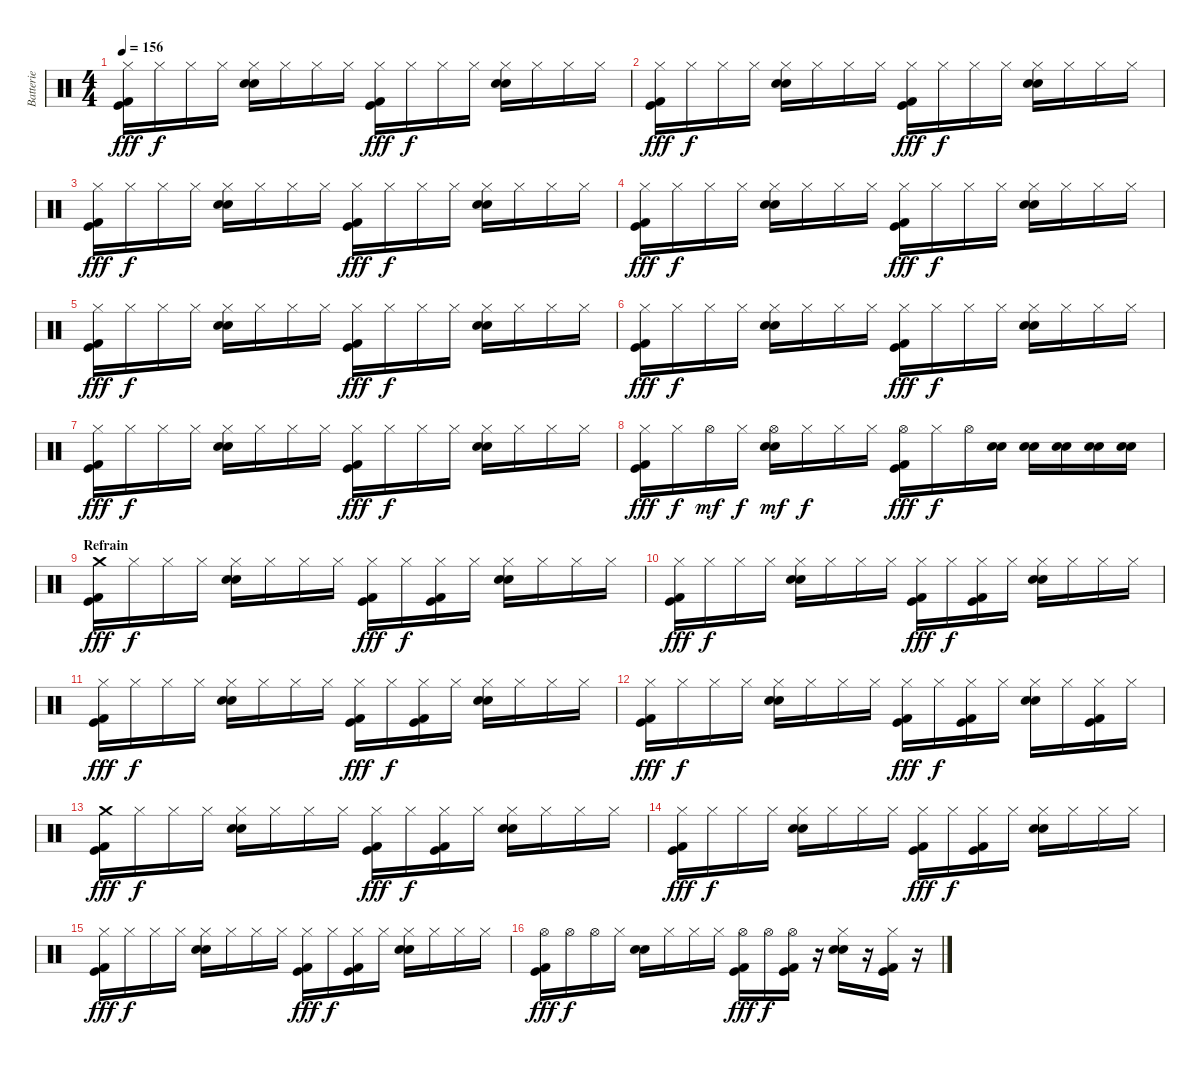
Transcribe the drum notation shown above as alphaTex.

\track ("Batterie" "Batterie") {instrument percussion}
\staff {score}
\articulation defaults
\ts (4 4)
\tempo 156
\clef neutral
\ks c
("Hi-Hat (closed)" "Kick (hit)" "Kick (hit) 2").16{dy fff} "Hi-Hat (closed)".16{dy f} "Hi-Hat (closed)".16 "Hi-Hat (closed)".16 ("Hi-Hat (closed)" "Snare (hit) 2" "Electric Snare (hit)").16 "Hi-Hat (closed)".16 "Hi-Hat (closed)".16 "Hi-Hat (closed)".16 ("Hi-Hat (closed)" "Kick (hit)" "Kick (hit) 2").16{dy fff} "Hi-Hat (closed)".16{dy f} "Hi-Hat (closed)".16 "Hi-Hat (closed)".16 ("Hi-Hat (closed)" "Snare (hit) 2" "Electric Snare (hit)").16 "Hi-Hat (closed)".16 "Hi-Hat (closed)".16 "Hi-Hat (closed)".16 |
("Hi-Hat (closed)" "Kick (hit)" "Kick (hit) 2").16{dy fff} "Hi-Hat (closed)".16{dy f} "Hi-Hat (closed)".16 "Hi-Hat (closed)".16 ("Hi-Hat (closed)" "Snare (hit) 2" "Electric Snare (hit)").16 "Hi-Hat (closed)".16 "Hi-Hat (closed)".16 "Hi-Hat (closed)".16 ("Hi-Hat (closed)" "Kick (hit)" "Kick (hit) 2").16{dy fff} "Hi-Hat (closed)".16{dy f} "Hi-Hat (closed)".16 "Hi-Hat (closed)".16 ("Hi-Hat (closed)" "Snare (hit) 2" "Electric Snare (hit)").16 "Hi-Hat (closed)".16 "Hi-Hat (closed)".16 "Hi-Hat (closed)".16 |
("Hi-Hat (closed)" "Kick (hit)" "Kick (hit) 2").16{dy fff} "Hi-Hat (closed)".16{dy f} "Hi-Hat (closed)".16 "Hi-Hat (closed)".16 ("Hi-Hat (closed)" "Snare (hit) 2" "Electric Snare (hit)").16 "Hi-Hat (closed)".16 "Hi-Hat (closed)".16 "Hi-Hat (closed)".16 ("Hi-Hat (closed)" "Kick (hit)" "Kick (hit) 2").16{dy fff} "Hi-Hat (closed)".16{dy f} "Hi-Hat (closed)".16 "Hi-Hat (closed)".16 ("Hi-Hat (closed)" "Snare (hit) 2" "Electric Snare (hit)").16 "Hi-Hat (closed)".16 "Hi-Hat (closed)".16 "Hi-Hat (closed)".16 |
("Hi-Hat (closed)" "Kick (hit)" "Kick (hit) 2").16{dy fff} "Hi-Hat (closed)".16{dy f} "Hi-Hat (closed)".16 "Hi-Hat (closed)".16 ("Hi-Hat (closed)" "Snare (hit) 2" "Electric Snare (hit)").16 "Hi-Hat (closed)".16 "Hi-Hat (closed)".16 "Hi-Hat (closed)".16 ("Hi-Hat (closed)" "Kick (hit)" "Kick (hit) 2").16{dy fff} "Hi-Hat (closed)".16{dy f} "Hi-Hat (closed)".16 "Hi-Hat (closed)".16 ("Hi-Hat (closed)" "Snare (hit) 2" "Electric Snare (hit)").16 "Hi-Hat (closed)".16 "Hi-Hat (closed)".16 "Hi-Hat (closed)".16 |
("Hi-Hat (closed)" "Kick (hit)" "Kick (hit) 2").16{dy fff} "Hi-Hat (closed)".16{dy f} "Hi-Hat (closed)".16 "Hi-Hat (closed)".16 ("Hi-Hat (closed)" "Snare (hit) 2" "Electric Snare (hit)").16 "Hi-Hat (closed)".16 "Hi-Hat (closed)".16 "Hi-Hat (closed)".16 ("Hi-Hat (closed)" "Kick (hit)" "Kick (hit) 2").16{dy fff} "Hi-Hat (closed)".16{dy f} "Hi-Hat (closed)".16 "Hi-Hat (closed)".16 ("Hi-Hat (closed)" "Snare (hit) 2" "Electric Snare (hit)").16 "Hi-Hat (closed)".16 "Hi-Hat (closed)".16 "Hi-Hat (closed)".16 |
("Hi-Hat (closed)" "Kick (hit)" "Kick (hit) 2").16{dy fff} "Hi-Hat (closed)".16{dy f} "Hi-Hat (closed)".16 "Hi-Hat (closed)".16 ("Hi-Hat (closed)" "Snare (hit) 2" "Electric Snare (hit)").16 "Hi-Hat (closed)".16 "Hi-Hat (closed)".16 "Hi-Hat (closed)".16 ("Hi-Hat (closed)" "Kick (hit)" "Kick (hit) 2").16{dy fff} "Hi-Hat (closed)".16{dy f} "Hi-Hat (closed)".16 "Hi-Hat (closed)".16 ("Hi-Hat (closed)" "Snare (hit) 2" "Electric Snare (hit)").16 "Hi-Hat (closed)".16 "Hi-Hat (closed)".16 "Hi-Hat (closed)".16 |
("Hi-Hat (closed)" "Kick (hit)" "Kick (hit) 2").16{dy fff} "Hi-Hat (closed)".16{dy f} "Hi-Hat (closed)".16 "Hi-Hat (closed)".16 ("Hi-Hat (closed)" "Snare (hit) 2" "Electric Snare (hit)").16 "Hi-Hat (closed)".16 "Hi-Hat (closed)".16 "Hi-Hat (closed)".16 ("Hi-Hat (closed)" "Kick (hit)" "Kick (hit) 2").16{dy fff} "Hi-Hat (closed)".16{dy f} "Hi-Hat (closed)".16 "Hi-Hat (closed)".16 ("Hi-Hat (closed)" "Snare (hit) 2" "Electric Snare (hit)").16 "Hi-Hat (closed)".16 "Hi-Hat (closed)".16 "Hi-Hat (closed)".16 |
("Hi-Hat (closed)" "Kick (hit)" "Kick (hit) 2").16{dy fff} "Hi-Hat (closed)".16{dy f} "Hi-Hat (open)".16{dy mf} "Hi-Hat (closed)".16{dy f} ("Hi-Hat (open)" "Snare (hit) 2" "Electric Snare (hit)").16{dy mf} "Hi-Hat (closed)".16{dy f} "Hi-Hat (closed)".16 "Hi-Hat (closed)".16 ("Hi-Hat (open)" "Kick (hit)" "Kick (hit) 2").16{dy fff} "Hi-Hat (closed)".16{dy f} "Hi-Hat (open)".16 ("Snare (hit) 2" "Electric Snare (hit)").16 ("Snare (hit) 2" "Electric Snare (hit)").16 ("Snare (hit) 2" "Electric Snare (hit)").16 ("Snare (hit) 2" "Electric Snare (hit)").16 ("Snare (hit) 2" "Electric Snare (hit)").16 |
\section ("" "Refrain")
("Crash medium (hit)" "Kick (hit)" "Kick (hit) 2").16{dy fff} "Hi-Hat (closed)".16{dy f} "Hi-Hat (closed)".16 "Hi-Hat (closed)".16 ("Hi-Hat (closed)" "Snare (hit) 2" "Electric Snare (hit)").16 "Hi-Hat (closed)".16 "Hi-Hat (closed)".16 "Hi-Hat (closed)".16 ("Hi-Hat (closed)" "Kick (hit)" "Kick (hit) 2").16{dy fff} "Hi-Hat (closed)".16{dy f} ("Hi-Hat (closed)" "Kick (hit)" "Kick (hit) 2").16 "Hi-Hat (closed)".16 ("Hi-Hat (closed)" "Snare (hit) 2" "Electric Snare (hit)").16 "Hi-Hat (closed)".16 "Hi-Hat (closed)".16 "Hi-Hat (closed)".16 |
("Hi-Hat (closed)" "Kick (hit)" "Kick (hit) 2").16{dy fff} "Hi-Hat (closed)".16{dy f} "Hi-Hat (closed)".16 "Hi-Hat (closed)".16 ("Hi-Hat (closed)" "Snare (hit) 2" "Electric Snare (hit)").16 "Hi-Hat (closed)".16 "Hi-Hat (closed)".16 "Hi-Hat (closed)".16 ("Hi-Hat (closed)" "Kick (hit)" "Kick (hit) 2").16{dy fff} "Hi-Hat (closed)".16{dy f} ("Hi-Hat (closed)" "Kick (hit)" "Kick (hit) 2").16 "Hi-Hat (closed)".16 ("Hi-Hat (closed)" "Snare (hit) 2" "Electric Snare (hit)").16 "Hi-Hat (closed)".16 "Hi-Hat (closed)".16 "Hi-Hat (closed)".16 |
("Hi-Hat (closed)" "Kick (hit)" "Kick (hit) 2").16{dy fff} "Hi-Hat (closed)".16{dy f} "Hi-Hat (closed)".16 "Hi-Hat (closed)".16 ("Hi-Hat (closed)" "Snare (hit) 2" "Electric Snare (hit)").16 "Hi-Hat (closed)".16 "Hi-Hat (closed)".16 "Hi-Hat (closed)".16 ("Hi-Hat (closed)" "Kick (hit)" "Kick (hit) 2").16{dy fff} "Hi-Hat (closed)".16{dy f} ("Hi-Hat (closed)" "Kick (hit)" "Kick (hit) 2").16 "Hi-Hat (closed)".16 ("Hi-Hat (closed)" "Snare (hit) 2" "Electric Snare (hit)").16 "Hi-Hat (closed)".16 "Hi-Hat (closed)".16 "Hi-Hat (closed)".16 |
("Hi-Hat (closed)" "Kick (hit)" "Kick (hit) 2").16{dy fff} "Hi-Hat (closed)".16{dy f} "Hi-Hat (closed)".16 "Hi-Hat (closed)".16 ("Hi-Hat (closed)" "Snare (hit) 2" "Electric Snare (hit)").16 "Hi-Hat (closed)".16 "Hi-Hat (closed)".16 "Hi-Hat (closed)".16 ("Hi-Hat (closed)" "Kick (hit)" "Kick (hit) 2").16{dy fff} "Hi-Hat (closed)".16{dy f} ("Hi-Hat (closed)" "Kick (hit)" "Kick (hit) 2").16 "Hi-Hat (closed)".16 ("Hi-Hat (closed)" "Snare (hit) 2" "Electric Snare (hit)").16 "Hi-Hat (closed)".16 ("Hi-Hat (closed)" "Kick (hit)" "Kick (hit) 2").16 "Hi-Hat (closed)".16 |
("Crash medium (hit)" "Kick (hit)" "Kick (hit) 2").16{dy fff} "Hi-Hat (closed)".16{dy f} "Hi-Hat (closed)".16 "Hi-Hat (closed)".16 ("Hi-Hat (closed)" "Snare (hit) 2" "Electric Snare (hit)").16 "Hi-Hat (closed)".16 "Hi-Hat (closed)".16 "Hi-Hat (closed)".16 ("Hi-Hat (closed)" "Kick (hit)" "Kick (hit) 2").16{dy fff} "Hi-Hat (closed)".16{dy f} ("Hi-Hat (closed)" "Kick (hit)" "Kick (hit) 2").16 "Hi-Hat (closed)".16 ("Hi-Hat (closed)" "Snare (hit) 2" "Electric Snare (hit)").16 "Hi-Hat (closed)".16 "Hi-Hat (closed)".16 "Hi-Hat (closed)".16 |
("Hi-Hat (closed)" "Kick (hit)" "Kick (hit) 2").16{dy fff} "Hi-Hat (closed)".16{dy f} "Hi-Hat (closed)".16 "Hi-Hat (closed)".16 ("Hi-Hat (closed)" "Snare (hit) 2" "Electric Snare (hit)").16 "Hi-Hat (closed)".16 "Hi-Hat (closed)".16 "Hi-Hat (closed)".16 ("Hi-Hat (closed)" "Kick (hit)" "Kick (hit) 2").16{dy fff} "Hi-Hat (closed)".16{dy f} ("Hi-Hat (closed)" "Kick (hit)" "Kick (hit) 2").16 "Hi-Hat (closed)".16 ("Hi-Hat (closed)" "Snare (hit) 2" "Electric Snare (hit)").16 "Hi-Hat (closed)".16 "Hi-Hat (closed)".16 "Hi-Hat (closed)".16 |
("Hi-Hat (closed)" "Kick (hit)" "Kick (hit) 2").16{dy fff} "Hi-Hat (closed)".16{dy f} "Hi-Hat (closed)".16 "Hi-Hat (closed)".16 ("Hi-Hat (closed)" "Snare (hit) 2" "Electric Snare (hit)").16 "Hi-Hat (closed)".16 "Hi-Hat (closed)".16 "Hi-Hat (closed)".16 ("Hi-Hat (closed)" "Kick (hit)" "Kick (hit) 2").16{dy fff} "Hi-Hat (closed)".16{dy f} ("Hi-Hat (closed)" "Kick (hit)" "Kick (hit) 2").16 "Hi-Hat (closed)".16 ("Hi-Hat (closed)" "Snare (hit) 2" "Electric Snare (hit)").16 "Hi-Hat (closed)".16 "Hi-Hat (closed)".16 "Hi-Hat (closed)".16 |
("Hi-Hat (open)" "Kick (hit)" "Kick (hit) 2").16{dy fff} "Hi-Hat (open)".16{dy f} "Hi-Hat (open)".16 "Hi-Hat (closed)".16 ("Snare (hit) 2" "Electric Snare (hit)").16 "Hi-Hat (closed)".16 "Hi-Hat (closed)".16 "Hi-Hat (closed)".16 ("Hi-Hat (open)" "Kick (hit)" "Kick (hit) 2").16{dy fff} "Hi-Hat (open)".16{dy f} ("Hi-Hat (open)" "Kick (hit)" "Kick (hit) 2").16 r.16 ("Hi-Hat (closed)" "Snare (hit) 2" "Electric Snare (hit)").16 r.16 ("Hi-Hat (closed)" "Kick (hit)" "Kick (hit) 2").16 r.16
